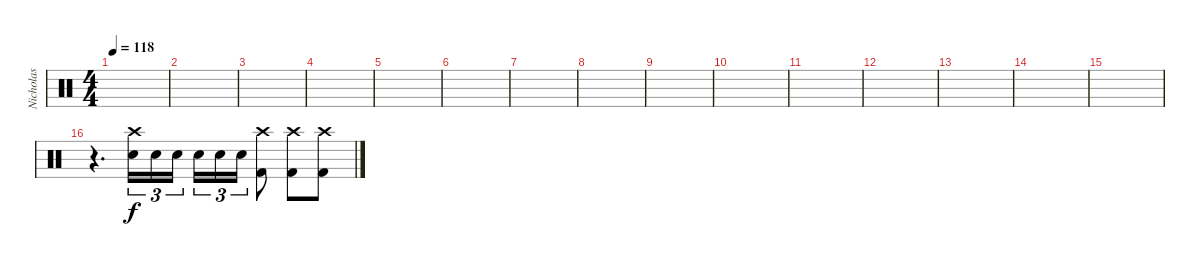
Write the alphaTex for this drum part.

\track ("Nicholas" "Nicholas") {instrument percussion}
\staff {score}
\articulation defaults
\ts (4 4)
\tempo 118
\clef neutral
\ks c
|
|
|
|
|
|
|
|
|
|
|
|
|
|
|
r.4{d} ("Snare (hit) 2" "Crash high (hit)").16{tu (3 2)} "Snare (hit) 2".16{tu (3 2)} "Snare (hit) 2".16{tu (3 2)} "Snare (hit) 2".16{tu (3 2)} "Snare (hit) 2".16{tu (3 2)} "Snare (hit) 2".16{tu (3 2)} ("Kick (hit) 2" "Crash high (hit)").8 ("Kick (hit) 2" "Crash high (hit)").8 ("Kick (hit) 2" "Crash high (hit)").8
